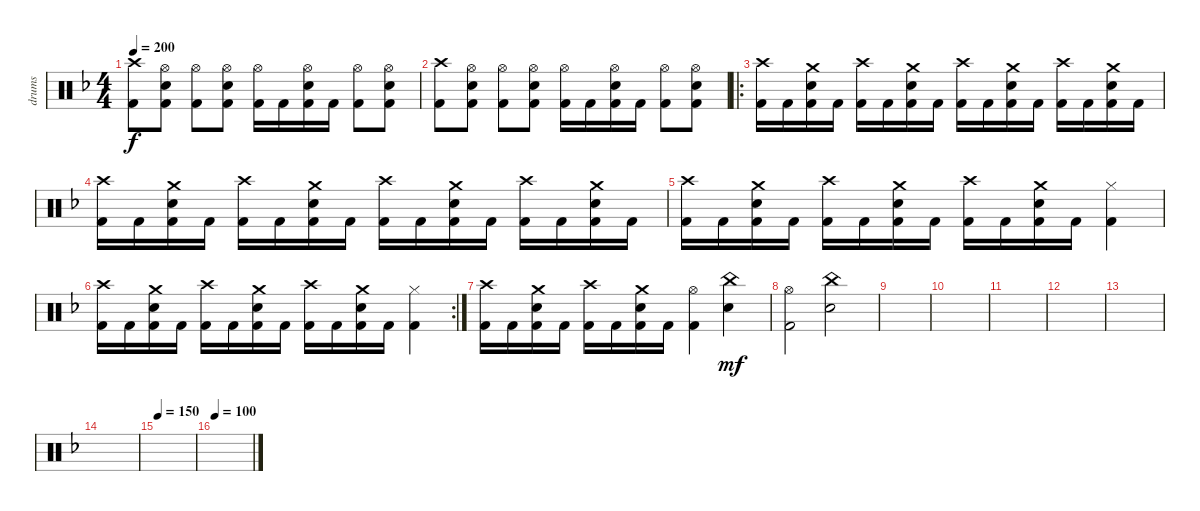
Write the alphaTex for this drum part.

\track ("drums" "drums") {instrument percussion}
\staff {score}
\articulation defaults
\ts (4 4)
\tempo 200
\clef neutral
\ks dminor
("Crash high (hit)" "Kick (hit) 2").8{dy f} ("Hi-Hat (open)" "Electric Snare (hit)" "Kick (hit) 2").8 ("Hi-Hat (open)" "Kick (hit) 2").8 ("Hi-Hat (open)" "Electric Snare (hit)" "Kick (hit) 2").8 ("Hi-Hat (open)" "Kick (hit) 2").16 "Kick (hit) 2".16 ("Hi-Hat (open)" "Electric Snare (hit)" "Kick (hit) 2").16 "Kick (hit) 2".16 ("Hi-Hat (open)" "Kick (hit) 2").8 ("Hi-Hat (open)" "Electric Snare (hit)" "Kick (hit) 2").8 |
("Crash high (hit)" "Kick (hit) 2").8 ("Hi-Hat (open)" "Electric Snare (hit)" "Kick (hit) 2").8 ("Hi-Hat (open)" "Kick (hit) 2").8 ("Hi-Hat (open)" "Electric Snare (hit)" "Kick (hit) 2").8 ("Hi-Hat (open)" "Kick (hit) 2").16 "Kick (hit) 2".16 ("Hi-Hat (open)" "Electric Snare (hit)" "Kick (hit) 2").16 "Kick (hit) 2".16 ("Hi-Hat (open)" "Kick (hit) 2").8 ("Hi-Hat (open)" "Electric Snare (hit)" "Kick (hit) 2").8 |
\ro
("Crash high (hit)" "Kick (hit) 2").16 "Kick (hit) 2".16 ("Crash medium (hit)" "Electric Snare (hit)" "Kick (hit) 2").16 "Kick (hit) 2".16 ("Crash high (hit)" "Kick (hit) 2").16 "Kick (hit) 2".16 ("Crash medium (hit)" "Electric Snare (hit)" "Kick (hit) 2").16 "Kick (hit) 2".16 ("Crash high (hit)" "Kick (hit) 2").16 "Kick (hit) 2".16 ("Crash medium (hit)" "Electric Snare (hit)" "Kick (hit) 2").16 "Kick (hit) 2".16 ("Crash high (hit)" "Kick (hit) 2").16 "Kick (hit) 2".16 ("Crash medium (hit)" "Electric Snare (hit)" "Kick (hit) 2").16 "Kick (hit) 2".16 |
("Crash high (hit)" "Kick (hit) 2").16 "Kick (hit) 2".16 ("Crash medium (hit)" "Electric Snare (hit)" "Kick (hit) 2").16 "Kick (hit) 2".16 ("Crash high (hit)" "Kick (hit) 2").16 "Kick (hit) 2".16 ("Crash medium (hit)" "Electric Snare (hit)" "Kick (hit) 2").16 "Kick (hit) 2".16 ("Crash high (hit)" "Kick (hit) 2").16 "Kick (hit) 2".16 ("Crash medium (hit)" "Electric Snare (hit)" "Kick (hit) 2").16 "Kick (hit) 2".16 ("Crash high (hit)" "Kick (hit) 2").16 "Kick (hit) 2".16 ("Crash medium (hit)" "Electric Snare (hit)" "Kick (hit) 2").16 "Kick (hit) 2".16 |
("Crash high (hit)" "Kick (hit) 2").16 "Kick (hit) 2".16 ("Crash medium (hit)" "Electric Snare (hit)" "Kick (hit) 2").16 "Kick (hit) 2".16 ("Crash high (hit)" "Kick (hit) 2").16 "Kick (hit) 2".16 ("Crash medium (hit)" "Electric Snare (hit)" "Kick (hit) 2").16 "Kick (hit) 2".16 ("Crash high (hit)" "Kick (hit) 2").16 "Kick (hit) 2".16 ("Crash medium (hit)" "Electric Snare (hit)" "Kick (hit) 2").16 "Kick (hit) 2".16 ("Hi-Hat (closed)" "Kick (hit) 2").4 |
\rc 2
("Crash high (hit)" "Kick (hit) 2").16 "Kick (hit) 2".16 ("Crash medium (hit)" "Electric Snare (hit)" "Kick (hit) 2").16 "Kick (hit) 2".16 ("Crash high (hit)" "Kick (hit) 2").16 "Kick (hit) 2".16 ("Crash medium (hit)" "Electric Snare (hit)" "Kick (hit) 2").16 "Kick (hit) 2".16 ("Crash high (hit)" "Kick (hit) 2").16 "Kick (hit) 2".16 ("Crash medium (hit)" "Electric Snare (hit)" "Kick (hit) 2").16 "Kick (hit) 2".16 ("Hi-Hat (closed)" "Kick (hit) 2").4 |
("Crash high (hit)" "Kick (hit) 2").16 "Kick (hit) 2".16 ("Crash medium (hit)" "Electric Snare (hit)" "Kick (hit) 2").16 "Kick (hit) 2".16 ("Crash high (hit)" "Kick (hit) 2").16 "Kick (hit) 2".16 ("Crash medium (hit)" "Electric Snare (hit)" "Kick (hit) 2").16 "Kick (hit) 2".16 ("Hi-Hat (open)" "Kick (hit) 2").4 ("China (hit)" "Electric Snare (hit)").4{dy mf} |
("Hi-Hat (open)" "Kick (hit) 2").2 ("China (hit)" "Electric Snare (hit)").2 |
|
|
|
|
|
|
\tempo 150
|
\tempo 100
